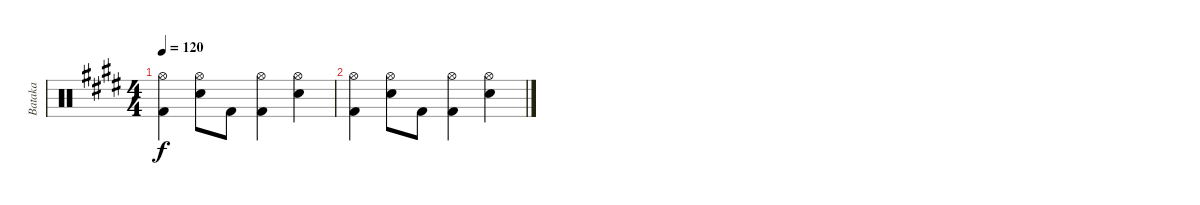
\track ("Bataka" "Bataka") {instrument percussion}
\staff {score}
\articulation defaults
\ts (4 4)
\tempo 120
\clef neutral
\ks e
("Hi-Hat (open)" "Kick (hit) 2").4{dy f} ("Hi-Hat (open)" "Electric Snare (hit)").8 "Kick (hit) 2".8 ("Hi-Hat (open)" "Kick (hit) 2").4 ("Hi-Hat (open)" "Electric Snare (hit)").4 |
("Hi-Hat (open)" "Kick (hit) 2").4 ("Hi-Hat (open)" "Electric Snare (hit)").8 "Kick (hit) 2".8 ("Hi-Hat (open)" "Kick (hit) 2").4 ("Hi-Hat (open)" "Electric Snare (hit)").4
